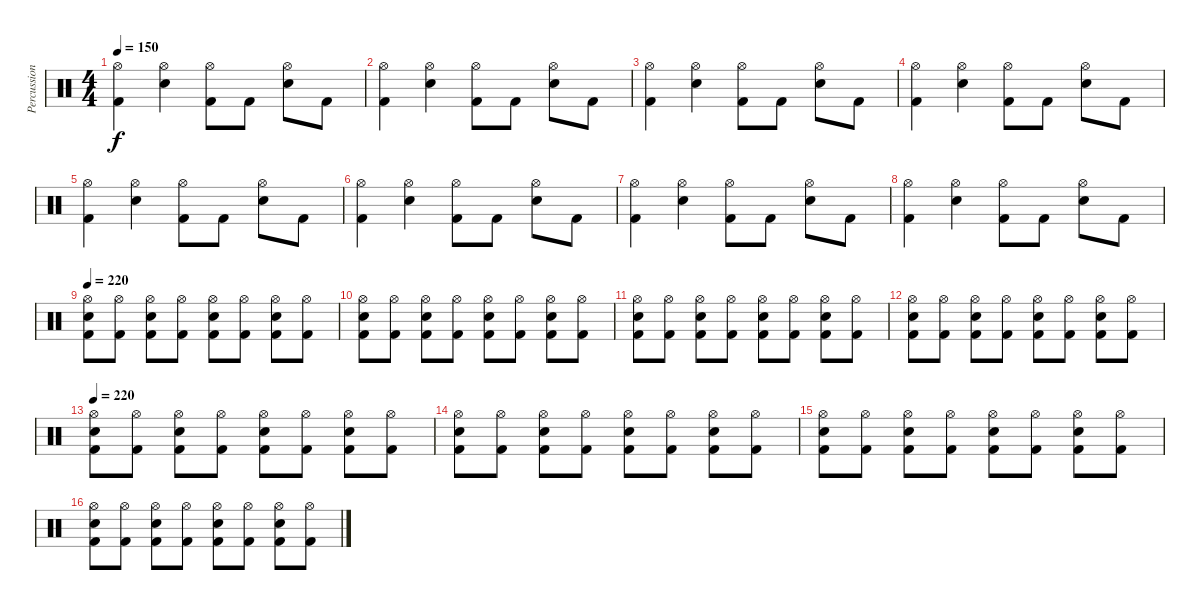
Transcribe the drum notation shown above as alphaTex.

\track ("Percussion" "Percussion") {instrument percussion}
\staff {score}
\articulation defaults
\ts (4 4)
\tempo 150
\clef neutral
\ks c
("Kick (hit) 2" "Hi-Hat (open)").4{dy f} ("Snare (hit) 2" "Hi-Hat (open)").4 ("Kick (hit) 2" "Hi-Hat (open)").8 "Kick (hit) 2".8 ("Snare (hit) 2" "Hi-Hat (open)").8 "Kick (hit) 2".8 |
("Kick (hit) 2" "Hi-Hat (open)").4 ("Snare (hit) 2" "Hi-Hat (open)").4 ("Kick (hit) 2" "Hi-Hat (open)").8 "Kick (hit) 2".8 ("Snare (hit) 2" "Hi-Hat (open)").8 "Kick (hit) 2".8 |
("Kick (hit) 2" "Hi-Hat (open)").4 ("Snare (hit) 2" "Hi-Hat (open)").4 ("Kick (hit) 2" "Hi-Hat (open)").8 "Kick (hit) 2".8 ("Snare (hit) 2" "Hi-Hat (open)").8 "Kick (hit) 2".8 |
("Kick (hit) 2" "Hi-Hat (open)").4 ("Snare (hit) 2" "Hi-Hat (open)").4 ("Kick (hit) 2" "Hi-Hat (open)").8 "Kick (hit) 2".8 ("Snare (hit) 2" "Hi-Hat (open)").8 "Kick (hit) 2".8 |
("Kick (hit) 2" "Hi-Hat (open)").4 ("Snare (hit) 2" "Hi-Hat (open)").4 ("Kick (hit) 2" "Hi-Hat (open)").8 "Kick (hit) 2".8 ("Snare (hit) 2" "Hi-Hat (open)").8 "Kick (hit) 2".8 |
("Kick (hit) 2" "Hi-Hat (open)").4 ("Snare (hit) 2" "Hi-Hat (open)").4 ("Kick (hit) 2" "Hi-Hat (open)").8 "Kick (hit) 2".8 ("Snare (hit) 2" "Hi-Hat (open)").8 "Kick (hit) 2".8 |
("Kick (hit) 2" "Hi-Hat (open)").4 ("Snare (hit) 2" "Hi-Hat (open)").4 ("Kick (hit) 2" "Hi-Hat (open)").8 "Kick (hit) 2".8 ("Snare (hit) 2" "Hi-Hat (open)").8 "Kick (hit) 2".8 |
("Kick (hit) 2" "Hi-Hat (open)").4 ("Snare (hit) 2" "Hi-Hat (open)").4 ("Kick (hit) 2" "Hi-Hat (open)").8 "Kick (hit) 2".8 ("Snare (hit) 2" "Hi-Hat (open)").8 "Kick (hit) 2".8 |
\tempo 220
("Kick (hit) 2" "Snare (hit) 2" "Hi-Hat (open)").8 ("Kick (hit) 2" "Hi-Hat (open)").8 ("Kick (hit) 2" "Snare (hit) 2" "Hi-Hat (open)").8 ("Kick (hit) 2" "Hi-Hat (open)").8 ("Kick (hit) 2" "Snare (hit) 2" "Hi-Hat (open)").8 ("Kick (hit) 2" "Hi-Hat (open)").8 ("Kick (hit) 2" "Snare (hit) 2" "Hi-Hat (open)").8 ("Kick (hit) 2" "Hi-Hat (open)").8 |
("Kick (hit) 2" "Snare (hit) 2" "Hi-Hat (open)").8 ("Kick (hit) 2" "Hi-Hat (open)").8 ("Kick (hit) 2" "Snare (hit) 2" "Hi-Hat (open)").8 ("Kick (hit) 2" "Hi-Hat (open)").8 ("Kick (hit) 2" "Snare (hit) 2" "Hi-Hat (open)").8 ("Kick (hit) 2" "Hi-Hat (open)").8 ("Kick (hit) 2" "Snare (hit) 2" "Hi-Hat (open)").8 ("Kick (hit) 2" "Hi-Hat (open)").8 |
("Kick (hit) 2" "Snare (hit) 2" "Hi-Hat (open)").8 ("Kick (hit) 2" "Hi-Hat (open)").8 ("Kick (hit) 2" "Snare (hit) 2" "Hi-Hat (open)").8 ("Kick (hit) 2" "Hi-Hat (open)").8 ("Kick (hit) 2" "Snare (hit) 2" "Hi-Hat (open)").8 ("Kick (hit) 2" "Hi-Hat (open)").8 ("Kick (hit) 2" "Snare (hit) 2" "Hi-Hat (open)").8 ("Kick (hit) 2" "Hi-Hat (open)").8 |
("Kick (hit) 2" "Snare (hit) 2" "Hi-Hat (open)").8 ("Kick (hit) 2" "Hi-Hat (open)").8 ("Kick (hit) 2" "Snare (hit) 2" "Hi-Hat (open)").8 ("Kick (hit) 2" "Hi-Hat (open)").8 ("Kick (hit) 2" "Snare (hit) 2" "Hi-Hat (open)").8 ("Kick (hit) 2" "Hi-Hat (open)").8 ("Kick (hit) 2" "Snare (hit) 2" "Hi-Hat (open)").8 ("Kick (hit) 2" "Hi-Hat (open)").8 |
\tempo 220
("Kick (hit) 2" "Snare (hit) 2" "Hi-Hat (open)").8 ("Kick (hit) 2" "Hi-Hat (open)").8 ("Kick (hit) 2" "Snare (hit) 2" "Hi-Hat (open)").8 ("Kick (hit) 2" "Hi-Hat (open)").8 ("Kick (hit) 2" "Snare (hit) 2" "Hi-Hat (open)").8 ("Kick (hit) 2" "Hi-Hat (open)").8 ("Kick (hit) 2" "Snare (hit) 2" "Hi-Hat (open)").8 ("Kick (hit) 2" "Hi-Hat (open)").8 |
("Kick (hit) 2" "Snare (hit) 2" "Hi-Hat (open)").8 ("Kick (hit) 2" "Hi-Hat (open)").8 ("Kick (hit) 2" "Snare (hit) 2" "Hi-Hat (open)").8 ("Kick (hit) 2" "Hi-Hat (open)").8 ("Kick (hit) 2" "Snare (hit) 2" "Hi-Hat (open)").8 ("Kick (hit) 2" "Hi-Hat (open)").8 ("Kick (hit) 2" "Snare (hit) 2" "Hi-Hat (open)").8 ("Kick (hit) 2" "Hi-Hat (open)").8 |
("Kick (hit) 2" "Snare (hit) 2" "Hi-Hat (open)").8 ("Kick (hit) 2" "Hi-Hat (open)").8 ("Kick (hit) 2" "Snare (hit) 2" "Hi-Hat (open)").8 ("Kick (hit) 2" "Hi-Hat (open)").8 ("Kick (hit) 2" "Snare (hit) 2" "Hi-Hat (open)").8 ("Kick (hit) 2" "Hi-Hat (open)").8 ("Kick (hit) 2" "Snare (hit) 2" "Hi-Hat (open)").8 ("Kick (hit) 2" "Hi-Hat (open)").8 |
("Kick (hit) 2" "Snare (hit) 2" "Hi-Hat (open)").8 ("Kick (hit) 2" "Hi-Hat (open)").8 ("Kick (hit) 2" "Snare (hit) 2" "Hi-Hat (open)").8 ("Kick (hit) 2" "Hi-Hat (open)").8 ("Kick (hit) 2" "Snare (hit) 2" "Hi-Hat (open)").8 ("Kick (hit) 2" "Hi-Hat (open)").8 ("Kick (hit) 2" "Snare (hit) 2" "Hi-Hat (open)").8 ("Kick (hit) 2" "Hi-Hat (open)").8
